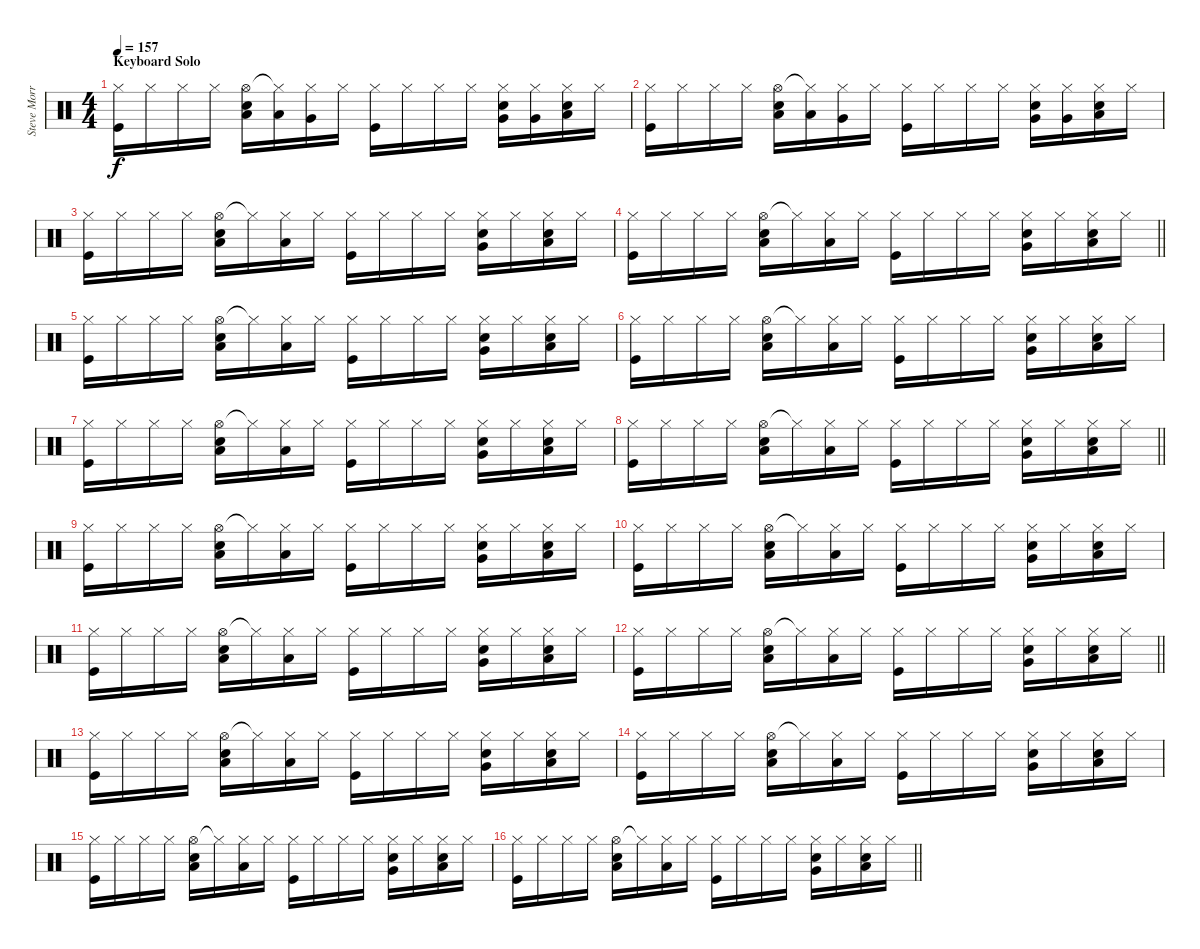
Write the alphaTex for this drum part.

\track ("Steve Morris" "Steve Morr") {instrument percussion}
\staff {score}
\articulation defaults
\ts (4 4)
\section ("" "Keyboard Solo")
\tempo 157
\clef neutral
\ks c
("Hi-Hat (closed)" "Kick (hit)").16{dy f} "Hi-Hat (closed)".16 "Hi-Hat (closed)".16 "Hi-Hat (closed)".16 ("Hi-Hat (open)" "Low Tom (hit)" "Electric Snare (hit)").16 ("Hi-Hat (closed)"{t} "Low Tom (hit)").16 ("Hi-Hat (closed)" "Very Low Tom (hit)").16 "Hi-Hat (closed)".16 ("Hi-Hat (closed)" "Kick (hit)").16 "Hi-Hat (closed)".16 "Hi-Hat (closed)".16 "Hi-Hat (closed)".16 ("Hi-Hat (closed)" "Very Low Tom (hit)" "Electric Snare (hit)").16 ("Hi-Hat (closed)" "Very Low Tom (hit)").16 ("Hi-Hat (closed)" "Low Floor Tom (hit)" "Electric Snare (hit)").16 "Hi-Hat (closed)".16 |
("Hi-Hat (closed)" "Kick (hit)").16 "Hi-Hat (closed)".16 "Hi-Hat (closed)".16 "Hi-Hat (closed)".16 ("Hi-Hat (open)" "Low Tom (hit)" "Electric Snare (hit)").16 ("Hi-Hat (closed)"{t} "Low Tom (hit)").16 ("Hi-Hat (closed)" "Very Low Tom (hit)").16 "Hi-Hat (closed)".16 ("Hi-Hat (closed)" "Kick (hit)").16 "Hi-Hat (closed)".16 "Hi-Hat (closed)".16 "Hi-Hat (closed)".16 ("Hi-Hat (closed)" "Very Low Tom (hit)" "Electric Snare (hit)").16 ("Hi-Hat (closed)" "Very Low Tom (hit)").16 ("Hi-Hat (closed)" "Low Floor Tom (hit)" "Electric Snare (hit)").16 "Hi-Hat (closed)".16 |
("Hi-Hat (closed)" "Kick (hit)").16 "Hi-Hat (closed)".16 "Hi-Hat (closed)".16 "Hi-Hat (closed)".16 ("Hi-Hat (open)" "Low Tom (hit)" "Electric Snare (hit)").16 "Hi-Hat (closed)"{t}.16 ("Hi-Hat (closed)" "Low Tom (hit)").16 "Hi-Hat (closed)".16 ("Hi-Hat (closed)" "Kick (hit)").16 "Hi-Hat (closed)".16 "Hi-Hat (closed)".16 "Hi-Hat (closed)".16 ("Hi-Hat (closed)" "Very Low Tom (hit)" "Electric Snare (hit)").16 "Hi-Hat (closed)".16 ("Hi-Hat (closed)" "Low Floor Tom (hit)" "Electric Snare (hit)").16 "Hi-Hat (closed)".16 |
\barLineRight lightlight
("Hi-Hat (closed)" "Kick (hit)").16 "Hi-Hat (closed)".16 "Hi-Hat (closed)".16 "Hi-Hat (closed)".16 ("Hi-Hat (open)" "Low Tom (hit)" "Electric Snare (hit)").16 "Hi-Hat (closed)"{t}.16 ("Hi-Hat (closed)" "Low Tom (hit)").16 "Hi-Hat (closed)".16 ("Hi-Hat (closed)" "Kick (hit)").16 "Hi-Hat (closed)".16 "Hi-Hat (closed)".16 "Hi-Hat (closed)".16 ("Hi-Hat (closed)" "Very Low Tom (hit)" "Electric Snare (hit)").16 "Hi-Hat (closed)".16 ("Hi-Hat (closed)" "Low Floor Tom (hit)" "Electric Snare (hit)").16 "Hi-Hat (closed)".16 |
("Hi-Hat (closed)" "Kick (hit)").16 "Hi-Hat (closed)".16 "Hi-Hat (closed)".16 "Hi-Hat (closed)".16 ("Hi-Hat (open)" "Low Tom (hit)" "Electric Snare (hit)").16 "Hi-Hat (closed)"{t}.16 ("Hi-Hat (closed)" "Low Tom (hit)").16 "Hi-Hat (closed)".16 ("Hi-Hat (closed)" "Kick (hit)").16 "Hi-Hat (closed)".16 "Hi-Hat (closed)".16 "Hi-Hat (closed)".16 ("Hi-Hat (closed)" "Very Low Tom (hit)" "Electric Snare (hit)").16 "Hi-Hat (closed)".16 ("Hi-Hat (closed)" "Low Floor Tom (hit)" "Electric Snare (hit)").16 "Hi-Hat (closed)".16 |
("Hi-Hat (closed)" "Kick (hit)").16 "Hi-Hat (closed)".16 "Hi-Hat (closed)".16 "Hi-Hat (closed)".16 ("Hi-Hat (open)" "Low Tom (hit)" "Electric Snare (hit)").16 "Hi-Hat (closed)"{t}.16 ("Hi-Hat (closed)" "Low Tom (hit)").16 "Hi-Hat (closed)".16 ("Hi-Hat (closed)" "Kick (hit)").16 "Hi-Hat (closed)".16 "Hi-Hat (closed)".16 "Hi-Hat (closed)".16 ("Hi-Hat (closed)" "Very Low Tom (hit)" "Electric Snare (hit)").16 "Hi-Hat (closed)".16 ("Hi-Hat (closed)" "Low Floor Tom (hit)" "Electric Snare (hit)").16 "Hi-Hat (closed)".16 |
("Hi-Hat (closed)" "Kick (hit)").16 "Hi-Hat (closed)".16 "Hi-Hat (closed)".16 "Hi-Hat (closed)".16 ("Hi-Hat (open)" "Low Tom (hit)" "Electric Snare (hit)").16 "Hi-Hat (closed)"{t}.16 ("Hi-Hat (closed)" "Low Tom (hit)").16 "Hi-Hat (closed)".16 ("Hi-Hat (closed)" "Kick (hit)").16 "Hi-Hat (closed)".16 "Hi-Hat (closed)".16 "Hi-Hat (closed)".16 ("Hi-Hat (closed)" "Very Low Tom (hit)" "Electric Snare (hit)").16 "Hi-Hat (closed)".16 ("Hi-Hat (closed)" "Low Floor Tom (hit)" "Electric Snare (hit)").16 "Hi-Hat (closed)".16 |
\barLineRight lightlight
("Hi-Hat (closed)" "Kick (hit)").16 "Hi-Hat (closed)".16 "Hi-Hat (closed)".16 "Hi-Hat (closed)".16 ("Hi-Hat (open)" "Low Tom (hit)" "Electric Snare (hit)").16 "Hi-Hat (closed)"{t}.16 ("Hi-Hat (closed)" "Low Tom (hit)").16 "Hi-Hat (closed)".16 ("Hi-Hat (closed)" "Kick (hit)").16 "Hi-Hat (closed)".16 "Hi-Hat (closed)".16 "Hi-Hat (closed)".16 ("Hi-Hat (closed)" "Very Low Tom (hit)" "Electric Snare (hit)").16 "Hi-Hat (closed)".16 ("Hi-Hat (closed)" "Low Floor Tom (hit)" "Electric Snare (hit)").16 "Hi-Hat (closed)".16 |
("Hi-Hat (closed)" "Kick (hit)").16 "Hi-Hat (closed)".16 "Hi-Hat (closed)".16 "Hi-Hat (closed)".16 ("Hi-Hat (open)" "Low Tom (hit)" "Electric Snare (hit)").16 "Hi-Hat (closed)"{t}.16 ("Hi-Hat (closed)" "Low Tom (hit)").16 "Hi-Hat (closed)".16 ("Hi-Hat (closed)" "Kick (hit)").16 "Hi-Hat (closed)".16 "Hi-Hat (closed)".16 "Hi-Hat (closed)".16 ("Hi-Hat (closed)" "Very Low Tom (hit)" "Electric Snare (hit)").16 "Hi-Hat (closed)".16 ("Hi-Hat (closed)" "Low Floor Tom (hit)" "Electric Snare (hit)").16 "Hi-Hat (closed)".16 |
("Hi-Hat (closed)" "Kick (hit)").16 "Hi-Hat (closed)".16 "Hi-Hat (closed)".16 "Hi-Hat (closed)".16 ("Hi-Hat (open)" "Low Tom (hit)" "Electric Snare (hit)").16 "Hi-Hat (closed)"{t}.16 ("Hi-Hat (closed)" "Low Tom (hit)").16 "Hi-Hat (closed)".16 ("Hi-Hat (closed)" "Kick (hit)").16 "Hi-Hat (closed)".16 "Hi-Hat (closed)".16 "Hi-Hat (closed)".16 ("Hi-Hat (closed)" "Very Low Tom (hit)" "Electric Snare (hit)").16 "Hi-Hat (closed)".16 ("Hi-Hat (closed)" "Low Floor Tom (hit)" "Electric Snare (hit)").16 "Hi-Hat (closed)".16 |
("Hi-Hat (closed)" "Kick (hit)").16 "Hi-Hat (closed)".16 "Hi-Hat (closed)".16 "Hi-Hat (closed)".16 ("Hi-Hat (open)" "Low Tom (hit)" "Electric Snare (hit)").16 "Hi-Hat (closed)"{t}.16 ("Hi-Hat (closed)" "Low Tom (hit)").16 "Hi-Hat (closed)".16 ("Hi-Hat (closed)" "Kick (hit)").16 "Hi-Hat (closed)".16 "Hi-Hat (closed)".16 "Hi-Hat (closed)".16 ("Hi-Hat (closed)" "Very Low Tom (hit)" "Electric Snare (hit)").16 "Hi-Hat (closed)".16 ("Hi-Hat (closed)" "Low Floor Tom (hit)" "Electric Snare (hit)").16 "Hi-Hat (closed)".16 |
\barLineRight lightlight
("Hi-Hat (closed)" "Kick (hit)").16 "Hi-Hat (closed)".16 "Hi-Hat (closed)".16 "Hi-Hat (closed)".16 ("Hi-Hat (open)" "Low Tom (hit)" "Electric Snare (hit)").16 "Hi-Hat (closed)"{t}.16 ("Hi-Hat (closed)" "Low Tom (hit)").16 "Hi-Hat (closed)".16 ("Hi-Hat (closed)" "Kick (hit)").16 "Hi-Hat (closed)".16 "Hi-Hat (closed)".16 "Hi-Hat (closed)".16 ("Hi-Hat (closed)" "Very Low Tom (hit)" "Electric Snare (hit)").16 "Hi-Hat (closed)".16 ("Hi-Hat (closed)" "Low Floor Tom (hit)" "Electric Snare (hit)").16 "Hi-Hat (closed)".16 |
("Hi-Hat (closed)" "Kick (hit)").16 "Hi-Hat (closed)".16 "Hi-Hat (closed)".16 "Hi-Hat (closed)".16 ("Hi-Hat (open)" "Low Tom (hit)" "Electric Snare (hit)").16 "Hi-Hat (closed)"{t}.16 ("Hi-Hat (closed)" "Low Tom (hit)").16 "Hi-Hat (closed)".16 ("Hi-Hat (closed)" "Kick (hit)").16 "Hi-Hat (closed)".16 "Hi-Hat (closed)".16 "Hi-Hat (closed)".16 ("Hi-Hat (closed)" "Very Low Tom (hit)" "Electric Snare (hit)").16 "Hi-Hat (closed)".16 ("Hi-Hat (closed)" "Low Floor Tom (hit)" "Electric Snare (hit)").16 "Hi-Hat (closed)".16 |
("Hi-Hat (closed)" "Kick (hit)").16 "Hi-Hat (closed)".16 "Hi-Hat (closed)".16 "Hi-Hat (closed)".16 ("Hi-Hat (open)" "Low Tom (hit)" "Electric Snare (hit)").16 "Hi-Hat (closed)"{t}.16 ("Hi-Hat (closed)" "Low Tom (hit)").16 "Hi-Hat (closed)".16 ("Hi-Hat (closed)" "Kick (hit)").16 "Hi-Hat (closed)".16 "Hi-Hat (closed)".16 "Hi-Hat (closed)".16 ("Hi-Hat (closed)" "Very Low Tom (hit)" "Electric Snare (hit)").16 "Hi-Hat (closed)".16 ("Hi-Hat (closed)" "Low Floor Tom (hit)" "Electric Snare (hit)").16 "Hi-Hat (closed)".16 |
("Hi-Hat (closed)" "Kick (hit)").16 "Hi-Hat (closed)".16 "Hi-Hat (closed)".16 "Hi-Hat (closed)".16 ("Hi-Hat (open)" "Low Tom (hit)" "Electric Snare (hit)").16 "Hi-Hat (closed)"{t}.16 ("Hi-Hat (closed)" "Low Tom (hit)").16 "Hi-Hat (closed)".16 ("Hi-Hat (closed)" "Kick (hit)").16 "Hi-Hat (closed)".16 "Hi-Hat (closed)".16 "Hi-Hat (closed)".16 ("Hi-Hat (closed)" "Very Low Tom (hit)" "Electric Snare (hit)").16 "Hi-Hat (closed)".16 ("Hi-Hat (closed)" "Low Floor Tom (hit)" "Electric Snare (hit)").16 "Hi-Hat (closed)".16 |
\barLineRight lightlight
("Hi-Hat (closed)" "Kick (hit)").16 "Hi-Hat (closed)".16 "Hi-Hat (closed)".16 "Hi-Hat (closed)".16 ("Hi-Hat (open)" "Low Tom (hit)" "Electric Snare (hit)").16 "Hi-Hat (closed)"{t}.16 ("Hi-Hat (closed)" "Low Tom (hit)").16 "Hi-Hat (closed)".16 ("Hi-Hat (closed)" "Kick (hit)").16 "Hi-Hat (closed)".16 "Hi-Hat (closed)".16 "Hi-Hat (closed)".16 ("Hi-Hat (closed)" "Very Low Tom (hit)" "Electric Snare (hit)").16 "Hi-Hat (closed)".16 ("Hi-Hat (closed)" "Low Floor Tom (hit)" "Electric Snare (hit)").16 "Hi-Hat (closed)".16
